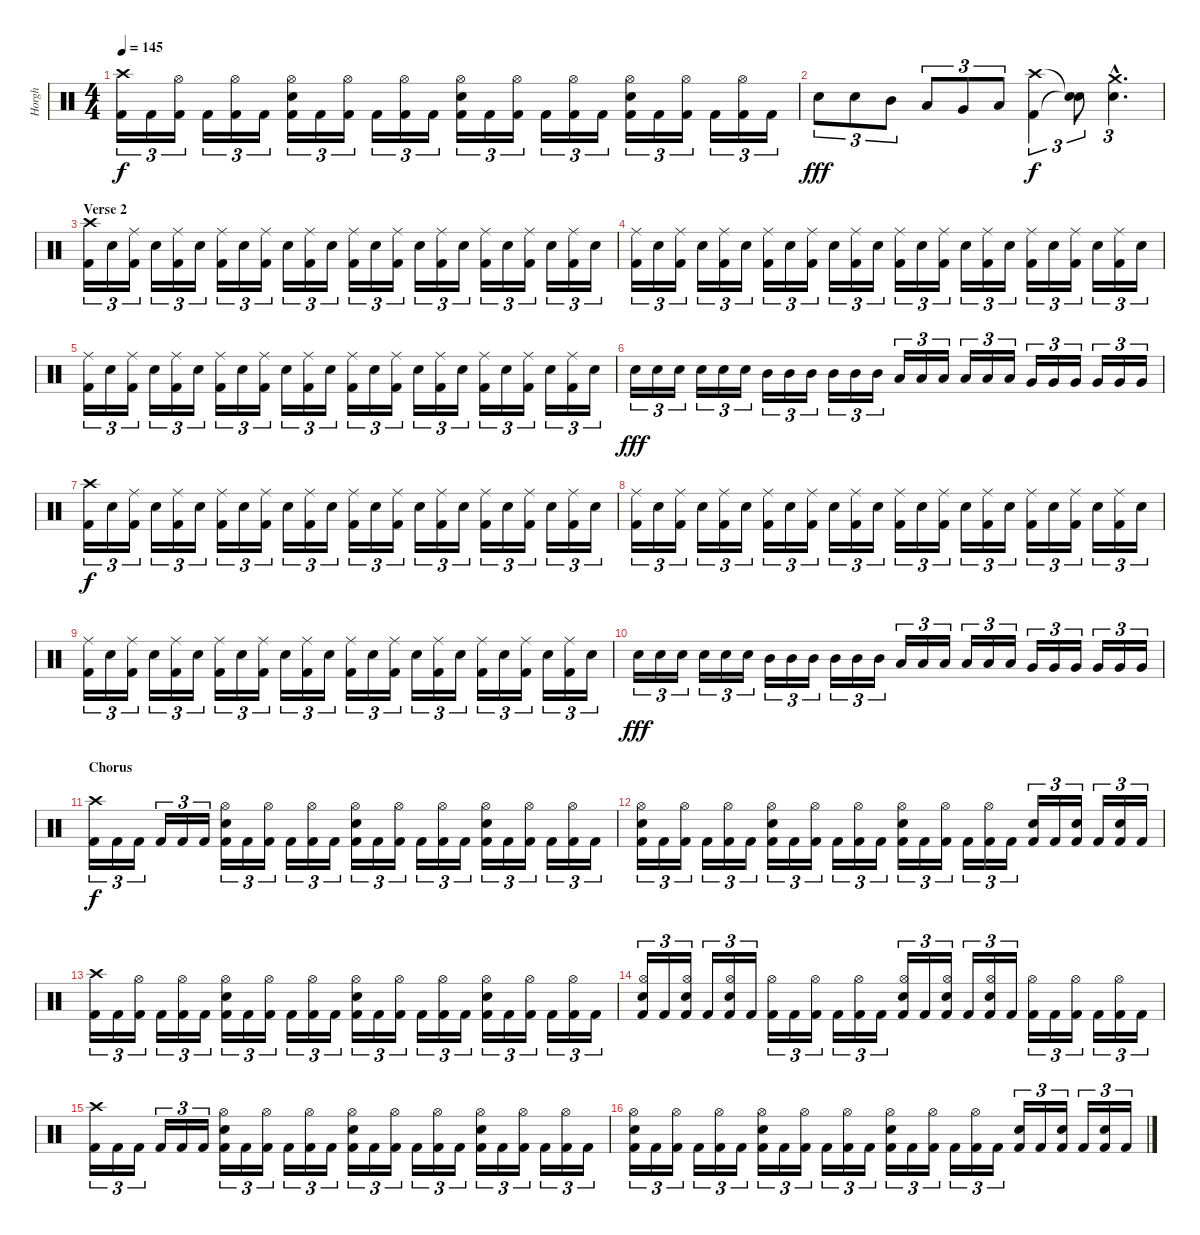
\track ("Horgh" "Horgh") {instrument percussion}
\staff {score}
\articulation defaults
\ts (4 4)
\tempo 145
\clef neutral
\ks c
("Crash high (hit)" "Kick (hit) 2").16{tu (3 2) dy f} "Kick (hit) 2".16{tu (3 2)} ("Hi-Hat (open)" "Kick (hit) 2").16{tu (3 2)} "Kick (hit) 2".16{tu (3 2)} ("Hi-Hat (open)" "Kick (hit) 2").16{tu (3 2)} "Kick (hit) 2".16{tu (3 2)} ("Hi-Hat (open)" "Electric Snare (hit)" "Kick (hit) 2").16{tu (3 2)} "Kick (hit) 2".16{tu (3 2)} ("Hi-Hat (open)" "Kick (hit) 2").16{tu (3 2)} "Kick (hit) 2".16{tu (3 2)} ("Hi-Hat (open)" "Kick (hit) 2").16{tu (3 2)} "Kick (hit) 2".16{tu (3 2)} ("Hi-Hat (open)" "Electric Snare (hit)" "Kick (hit) 2").16{tu (3 2)} "Kick (hit) 2".16{tu (3 2)} ("Hi-Hat (open)" "Kick (hit) 2").16{tu (3 2)} "Kick (hit) 2".16{tu (3 2)} ("Hi-Hat (open)" "Kick (hit) 2").16{tu (3 2)} "Kick (hit) 2".16{tu (3 2)} ("Hi-Hat (open)" "Electric Snare (hit)" "Kick (hit) 2").16{tu (3 2)} "Kick (hit) 2".16{tu (3 2)} ("Hi-Hat (open)" "Kick (hit) 2").16{tu (3 2)} "Kick (hit) 2".16{tu (3 2)} ("Hi-Hat (open)" "Kick (hit) 2").16{tu (3 2)} "Kick (hit) 2".16{tu (3 2)} |
"Electric Snare (hit)".8{tu (3 2) dy fff} "Electric Snare (hit)".8{tu (3 2)} "Mid Tom (hit)".8{tu (3 2)} "Low Tom (hit)".8{tu (3 2)} "Very Low Tom (hit)".8{tu (3 2)} "Low Floor Tom (hit)".8{tu (3 2)} ("Crash high (hit)" "Kick (hit) 2").4{tu (3 2) dy f} ("Snare (hit)"{t} "Snare (hit)"{t}).8{tu (3 2)} ("Crash medium (hit)"{hac} "Electric Snare (hit)"{hac}).4{d tu (3 2)} |
\section ("" "Verse 2")
("Crash high (hit)" "Kick (hit) 2").16{tu (3 2)} "Electric Snare (hit)".16{tu (3 2)} ("Ride (middle)" "Kick (hit) 2").16{tu (3 2)} "Electric Snare (hit)".16{tu (3 2)} ("Ride (middle)" "Kick (hit) 2").16{tu (3 2)} "Electric Snare (hit)".16{tu (3 2)} ("Ride (middle)" "Kick (hit) 2").16{tu (3 2)} "Electric Snare (hit)".16{tu (3 2)} ("Ride (middle)" "Kick (hit) 2").16{tu (3 2)} "Electric Snare (hit)".16{tu (3 2)} ("Ride (middle)" "Kick (hit) 2").16{tu (3 2)} "Electric Snare (hit)".16{tu (3 2)} ("Ride (middle)" "Kick (hit) 2").16{tu (3 2)} "Electric Snare (hit)".16{tu (3 2)} ("Ride (middle)" "Kick (hit) 2").16{tu (3 2)} "Electric Snare (hit)".16{tu (3 2)} ("Ride (middle)" "Kick (hit) 2").16{tu (3 2)} "Electric Snare (hit)".16{tu (3 2)} ("Ride (middle)" "Kick (hit) 2").16{tu (3 2)} "Electric Snare (hit)".16{tu (3 2)} ("Ride (middle)" "Kick (hit) 2").16{tu (3 2)} "Electric Snare (hit)".16{tu (3 2)} ("Ride (middle)" "Kick (hit) 2").16{tu (3 2)} "Electric Snare (hit)".16{tu (3 2)} |
("Ride (middle)" "Kick (hit) 2").16{tu (3 2)} "Electric Snare (hit)".16{tu (3 2)} ("Ride (middle)" "Kick (hit) 2").16{tu (3 2)} "Electric Snare (hit)".16{tu (3 2)} ("Ride (middle)" "Kick (hit) 2").16{tu (3 2)} "Electric Snare (hit)".16{tu (3 2)} ("Ride (middle)" "Kick (hit) 2").16{tu (3 2)} "Electric Snare (hit)".16{tu (3 2)} ("Ride (middle)" "Kick (hit) 2").16{tu (3 2)} "Electric Snare (hit)".16{tu (3 2)} ("Ride (middle)" "Kick (hit) 2").16{tu (3 2)} "Electric Snare (hit)".16{tu (3 2)} ("Ride (middle)" "Kick (hit) 2").16{tu (3 2)} "Electric Snare (hit)".16{tu (3 2)} ("Ride (middle)" "Kick (hit) 2").16{tu (3 2)} "Electric Snare (hit)".16{tu (3 2)} ("Ride (middle)" "Kick (hit) 2").16{tu (3 2)} "Electric Snare (hit)".16{tu (3 2)} ("Ride (middle)" "Kick (hit) 2").16{tu (3 2)} "Electric Snare (hit)".16{tu (3 2)} ("Ride (middle)" "Kick (hit) 2").16{tu (3 2)} "Electric Snare (hit)".16{tu (3 2)} ("Ride (middle)" "Kick (hit) 2").16{tu (3 2)} "Electric Snare (hit)".16{tu (3 2)} |
("Ride (middle)" "Kick (hit) 2").16{tu (3 2)} "Electric Snare (hit)".16{tu (3 2)} ("Ride (middle)" "Kick (hit) 2").16{tu (3 2)} "Electric Snare (hit)".16{tu (3 2)} ("Ride (middle)" "Kick (hit) 2").16{tu (3 2)} "Electric Snare (hit)".16{tu (3 2)} ("Ride (middle)" "Kick (hit) 2").16{tu (3 2)} "Electric Snare (hit)".16{tu (3 2)} ("Ride (middle)" "Kick (hit) 2").16{tu (3 2)} "Electric Snare (hit)".16{tu (3 2)} ("Ride (middle)" "Kick (hit) 2").16{tu (3 2)} "Electric Snare (hit)".16{tu (3 2)} ("Ride (middle)" "Kick (hit) 2").16{tu (3 2)} "Electric Snare (hit)".16{tu (3 2)} ("Ride (middle)" "Kick (hit) 2").16{tu (3 2)} "Electric Snare (hit)".16{tu (3 2)} ("Ride (middle)" "Kick (hit) 2").16{tu (3 2)} "Electric Snare (hit)".16{tu (3 2)} ("Ride (middle)" "Kick (hit) 2").16{tu (3 2)} "Electric Snare (hit)".16{tu (3 2)} ("Ride (middle)" "Kick (hit) 2").16{tu (3 2)} "Electric Snare (hit)".16{tu (3 2)} ("Ride (middle)" "Kick (hit) 2").16{tu (3 2)} "Electric Snare (hit)".16{tu (3 2)} |
"Electric Snare (hit)".16{tu (3 2) dy fff} "Electric Snare (hit)".16{tu (3 2)} "Electric Snare (hit)".16{tu (3 2)} "Electric Snare (hit)".16{tu (3 2)} "Electric Snare (hit)".16{tu (3 2)} "Electric Snare (hit)".16{tu (3 2)} "Mid Tom (hit)".16{tu (3 2)} "Mid Tom (hit)".16{tu (3 2)} "Mid Tom (hit)".16{tu (3 2)} "Mid Tom (hit)".16{tu (3 2)} "Mid Tom (hit)".16{tu (3 2)} "Mid Tom (hit)".16{tu (3 2)} "Low Tom (hit)".16{tu (3 2)} "Low Tom (hit)".16{tu (3 2)} "Low Tom (hit)".16{tu (3 2)} "Low Tom (hit)".16{tu (3 2)} "Low Tom (hit)".16{tu (3 2)} "Low Tom (hit)".16{tu (3 2)} "Very Low Tom (hit)".16{tu (3 2)} "Very Low Tom (hit)".16{tu (3 2)} "Very Low Tom (hit)".16{tu (3 2)} "Very Low Tom (hit)".16{tu (3 2)} "Very Low Tom (hit)".16{tu (3 2)} "Very Low Tom (hit)".16{tu (3 2)} |
("Crash high (hit)" "Kick (hit) 2").16{tu (3 2) dy f} "Electric Snare (hit)".16{tu (3 2)} ("Ride (middle)" "Kick (hit) 2").16{tu (3 2)} "Electric Snare (hit)".16{tu (3 2)} ("Ride (middle)" "Kick (hit) 2").16{tu (3 2)} "Electric Snare (hit)".16{tu (3 2)} ("Ride (middle)" "Kick (hit) 2").16{tu (3 2)} "Electric Snare (hit)".16{tu (3 2)} ("Ride (middle)" "Kick (hit) 2").16{tu (3 2)} "Electric Snare (hit)".16{tu (3 2)} ("Ride (middle)" "Kick (hit) 2").16{tu (3 2)} "Electric Snare (hit)".16{tu (3 2)} ("Ride (middle)" "Kick (hit) 2").16{tu (3 2)} "Electric Snare (hit)".16{tu (3 2)} ("Ride (middle)" "Kick (hit) 2").16{tu (3 2)} "Electric Snare (hit)".16{tu (3 2)} ("Ride (middle)" "Kick (hit) 2").16{tu (3 2)} "Electric Snare (hit)".16{tu (3 2)} ("Ride (middle)" "Kick (hit) 2").16{tu (3 2)} "Electric Snare (hit)".16{tu (3 2)} ("Ride (middle)" "Kick (hit) 2").16{tu (3 2)} "Electric Snare (hit)".16{tu (3 2)} ("Ride (middle)" "Kick (hit) 2").16{tu (3 2)} "Electric Snare (hit)".16{tu (3 2)} |
("Ride (middle)" "Kick (hit) 2").16{tu (3 2)} "Electric Snare (hit)".16{tu (3 2)} ("Ride (middle)" "Kick (hit) 2").16{tu (3 2)} "Electric Snare (hit)".16{tu (3 2)} ("Ride (middle)" "Kick (hit) 2").16{tu (3 2)} "Electric Snare (hit)".16{tu (3 2)} ("Ride (middle)" "Kick (hit) 2").16{tu (3 2)} "Electric Snare (hit)".16{tu (3 2)} ("Ride (middle)" "Kick (hit) 2").16{tu (3 2)} "Electric Snare (hit)".16{tu (3 2)} ("Ride (middle)" "Kick (hit) 2").16{tu (3 2)} "Electric Snare (hit)".16{tu (3 2)} ("Ride (middle)" "Kick (hit) 2").16{tu (3 2)} "Electric Snare (hit)".16{tu (3 2)} ("Ride (middle)" "Kick (hit) 2").16{tu (3 2)} "Electric Snare (hit)".16{tu (3 2)} ("Ride (middle)" "Kick (hit) 2").16{tu (3 2)} "Electric Snare (hit)".16{tu (3 2)} ("Ride (middle)" "Kick (hit) 2").16{tu (3 2)} "Electric Snare (hit)".16{tu (3 2)} ("Ride (middle)" "Kick (hit) 2").16{tu (3 2)} "Electric Snare (hit)".16{tu (3 2)} ("Ride (middle)" "Kick (hit) 2").16{tu (3 2)} "Electric Snare (hit)".16{tu (3 2)} |
("Ride (middle)" "Kick (hit) 2").16{tu (3 2)} "Electric Snare (hit)".16{tu (3 2)} ("Ride (middle)" "Kick (hit) 2").16{tu (3 2)} "Electric Snare (hit)".16{tu (3 2)} ("Ride (middle)" "Kick (hit) 2").16{tu (3 2)} "Electric Snare (hit)".16{tu (3 2)} ("Ride (middle)" "Kick (hit) 2").16{tu (3 2)} "Electric Snare (hit)".16{tu (3 2)} ("Ride (middle)" "Kick (hit) 2").16{tu (3 2)} "Electric Snare (hit)".16{tu (3 2)} ("Ride (middle)" "Kick (hit) 2").16{tu (3 2)} "Electric Snare (hit)".16{tu (3 2)} ("Ride (middle)" "Kick (hit) 2").16{tu (3 2)} "Electric Snare (hit)".16{tu (3 2)} ("Ride (middle)" "Kick (hit) 2").16{tu (3 2)} "Electric Snare (hit)".16{tu (3 2)} ("Ride (middle)" "Kick (hit) 2").16{tu (3 2)} "Electric Snare (hit)".16{tu (3 2)} ("Ride (middle)" "Kick (hit) 2").16{tu (3 2)} "Electric Snare (hit)".16{tu (3 2)} ("Ride (middle)" "Kick (hit) 2").16{tu (3 2)} "Electric Snare (hit)".16{tu (3 2)} ("Ride (middle)" "Kick (hit) 2").16{tu (3 2)} "Electric Snare (hit)".16{tu (3 2)} |
"Electric Snare (hit)".16{tu (3 2) dy fff} "Electric Snare (hit)".16{tu (3 2)} "Electric Snare (hit)".16{tu (3 2)} "Electric Snare (hit)".16{tu (3 2)} "Electric Snare (hit)".16{tu (3 2)} "Electric Snare (hit)".16{tu (3 2)} "Mid Tom (hit)".16{tu (3 2)} "Mid Tom (hit)".16{tu (3 2)} "Mid Tom (hit)".16{tu (3 2)} "Mid Tom (hit)".16{tu (3 2)} "Mid Tom (hit)".16{tu (3 2)} "Mid Tom (hit)".16{tu (3 2)} "Low Tom (hit)".16{tu (3 2)} "Low Tom (hit)".16{tu (3 2)} "Low Tom (hit)".16{tu (3 2)} "Low Tom (hit)".16{tu (3 2)} "Low Tom (hit)".16{tu (3 2)} "Low Tom (hit)".16{tu (3 2)} "Very Low Tom (hit)".16{tu (3 2)} "Very Low Tom (hit)".16{tu (3 2)} "Very Low Tom (hit)".16{tu (3 2)} "Very Low Tom (hit)".16{tu (3 2)} "Very Low Tom (hit)".16{tu (3 2)} "Very Low Tom (hit)".16{tu (3 2)} |
\section ("" "Chorus")
("Crash high (hit)" "Kick (hit) 2").16{tu (3 2) dy f} "Kick (hit) 2".16{tu (3 2)} "Kick (hit) 2".16{tu (3 2)} "Kick (hit) 2".16{tu (3 2)} "Kick (hit) 2".16{tu (3 2)} "Kick (hit) 2".16{tu (3 2)} ("Hi-Hat (open)" "Electric Snare (hit)" "Kick (hit) 2").16{tu (3 2)} "Kick (hit) 2".16{tu (3 2)} ("Hi-Hat (open)" "Kick (hit) 2").16{tu (3 2)} "Kick (hit) 2".16{tu (3 2)} ("Hi-Hat (open)" "Kick (hit) 2").16{tu (3 2)} "Kick (hit) 2".16{tu (3 2)} ("Hi-Hat (open)" "Electric Snare (hit)" "Kick (hit) 2").16{tu (3 2)} "Kick (hit) 2".16{tu (3 2)} ("Hi-Hat (open)" "Kick (hit) 2").16{tu (3 2)} "Kick (hit) 2".16{tu (3 2)} ("Hi-Hat (open)" "Kick (hit) 2").16{tu (3 2)} "Kick (hit) 2".16{tu (3 2)} ("Hi-Hat (open)" "Electric Snare (hit)" "Kick (hit) 2").16{tu (3 2)} "Kick (hit) 2".16{tu (3 2)} ("Hi-Hat (open)" "Kick (hit) 2").16{tu (3 2)} "Kick (hit) 2".16{tu (3 2)} ("Hi-Hat (open)" "Kick (hit) 2").16{tu (3 2)} "Kick (hit) 2".16{tu (3 2)} |
("Hi-Hat (open)" "Electric Snare (hit)" "Kick (hit) 2").16{tu (3 2)} "Kick (hit) 2".16{tu (3 2)} ("Hi-Hat (open)" "Kick (hit) 2").16{tu (3 2)} "Kick (hit) 2".16{tu (3 2)} ("Hi-Hat (open)" "Kick (hit) 2").16{tu (3 2)} "Kick (hit) 2".16{tu (3 2)} ("Hi-Hat (open)" "Electric Snare (hit)" "Kick (hit) 2").16{tu (3 2)} "Kick (hit) 2".16{tu (3 2)} ("Hi-Hat (open)" "Kick (hit) 2").16{tu (3 2)} "Kick (hit) 2".16{tu (3 2)} ("Hi-Hat (open)" "Kick (hit) 2").16{tu (3 2)} "Kick (hit) 2".16{tu (3 2)} ("Hi-Hat (open)" "Electric Snare (hit)" "Kick (hit) 2").16{tu (3 2)} "Kick (hit) 2".16{tu (3 2)} ("Hi-Hat (open)" "Kick (hit) 2").16{tu (3 2)} "Kick (hit) 2".16{tu (3 2)} ("Hi-Hat (open)" "Kick (hit) 2").16{tu (3 2)} "Kick (hit) 2".16{tu (3 2)} ("Electric Snare (hit)" "Kick (hit) 2").16{tu (3 2)} "Kick (hit) 2".16{tu (3 2)} ("Electric Snare (hit)" "Kick (hit) 2").16{tu (3 2)} "Kick (hit) 2".16{tu (3 2)} ("Electric Snare (hit)" "Kick (hit) 2").16{tu (3 2)} "Kick (hit) 2".16{tu (3 2)} |
("Crash high (hit)" "Kick (hit) 2").16{tu (3 2)} "Kick (hit) 2".16{tu (3 2)} ("Hi-Hat (open)" "Kick (hit) 2").16{tu (3 2)} "Kick (hit) 2".16{tu (3 2)} ("Hi-Hat (open)" "Kick (hit) 2").16{tu (3 2)} "Kick (hit) 2".16{tu (3 2)} ("Hi-Hat (open)" "Electric Snare (hit)" "Kick (hit) 2").16{tu (3 2)} "Kick (hit) 2".16{tu (3 2)} ("Hi-Hat (open)" "Kick (hit) 2").16{tu (3 2)} "Kick (hit) 2".16{tu (3 2)} ("Hi-Hat (open)" "Kick (hit) 2").16{tu (3 2)} "Kick (hit) 2".16{tu (3 2)} ("Hi-Hat (open)" "Electric Snare (hit)" "Kick (hit) 2").16{tu (3 2)} "Kick (hit) 2".16{tu (3 2)} ("Hi-Hat (open)" "Kick (hit) 2").16{tu (3 2)} "Kick (hit) 2".16{tu (3 2)} ("Hi-Hat (open)" "Kick (hit) 2").16{tu (3 2)} "Kick (hit) 2".16{tu (3 2)} ("Hi-Hat (open)" "Electric Snare (hit)" "Kick (hit) 2").16{tu (3 2)} "Kick (hit) 2".16{tu (3 2)} ("Hi-Hat (open)" "Kick (hit) 2").16{tu (3 2)} "Kick (hit) 2".16{tu (3 2)} ("Hi-Hat (open)" "Kick (hit) 2").16{tu (3 2)} "Kick (hit) 2".16{tu (3 2)} |
("Hi-Hat (open)" "Electric Snare (hit)" "Kick (hit) 2").16{tu (3 2)} "Kick (hit) 2".16{tu (3 2)} ("Hi-Hat (open)" "Electric Snare (hit)" "Kick (hit) 2").16{tu (3 2)} "Kick (hit) 2".16{tu (3 2)} ("Hi-Hat (open)" "Electric Snare (hit)" "Kick (hit) 2").16{tu (3 2)} "Kick (hit) 2".16{tu (3 2)} ("Hi-Hat (open)" "Kick (hit) 2").16{tu (3 2)} "Kick (hit) 2".16{tu (3 2)} ("Hi-Hat (open)" "Kick (hit) 2").16{tu (3 2)} "Kick (hit) 2".16{tu (3 2)} ("Hi-Hat (open)" "Kick (hit) 2").16{tu (3 2)} "Kick (hit) 2".16{tu (3 2)} ("Hi-Hat (open)" "Electric Snare (hit)" "Kick (hit) 2").16{tu (3 2)} "Kick (hit) 2".16{tu (3 2)} ("Hi-Hat (open)" "Electric Snare (hit)" "Kick (hit) 2").16{tu (3 2)} "Kick (hit) 2".16{tu (3 2)} ("Hi-Hat (open)" "Electric Snare (hit)" "Kick (hit) 2").16{tu (3 2)} "Kick (hit) 2".16{tu (3 2)} ("Hi-Hat (open)" "Kick (hit) 2").16{tu (3 2)} "Kick (hit) 2".16{tu (3 2)} ("Hi-Hat (open)" "Kick (hit) 2").16{tu (3 2)} "Kick (hit) 2".16{tu (3 2)} ("Hi-Hat (open)" "Kick (hit) 2").16{tu (3 2)} "Kick (hit) 2".16{tu (3 2)} |
("Crash high (hit)" "Kick (hit) 2").16{tu (3 2)} "Kick (hit) 2".16{tu (3 2)} "Kick (hit) 2".16{tu (3 2)} "Kick (hit) 2".16{tu (3 2)} "Kick (hit) 2".16{tu (3 2)} "Kick (hit) 2".16{tu (3 2)} ("Hi-Hat (open)" "Electric Snare (hit)" "Kick (hit) 2").16{tu (3 2)} "Kick (hit) 2".16{tu (3 2)} ("Hi-Hat (open)" "Kick (hit) 2").16{tu (3 2)} "Kick (hit) 2".16{tu (3 2)} ("Hi-Hat (open)" "Kick (hit) 2").16{tu (3 2)} "Kick (hit) 2".16{tu (3 2)} ("Hi-Hat (open)" "Electric Snare (hit)" "Kick (hit) 2").16{tu (3 2)} "Kick (hit) 2".16{tu (3 2)} ("Hi-Hat (open)" "Kick (hit) 2").16{tu (3 2)} "Kick (hit) 2".16{tu (3 2)} ("Hi-Hat (open)" "Kick (hit) 2").16{tu (3 2)} "Kick (hit) 2".16{tu (3 2)} ("Hi-Hat (open)" "Electric Snare (hit)" "Kick (hit) 2").16{tu (3 2)} "Kick (hit) 2".16{tu (3 2)} ("Hi-Hat (open)" "Kick (hit) 2").16{tu (3 2)} "Kick (hit) 2".16{tu (3 2)} ("Hi-Hat (open)" "Kick (hit) 2").16{tu (3 2)} "Kick (hit) 2".16{tu (3 2)} |
("Hi-Hat (open)" "Electric Snare (hit)" "Kick (hit) 2").16{tu (3 2)} "Kick (hit) 2".16{tu (3 2)} ("Hi-Hat (open)" "Kick (hit) 2").16{tu (3 2)} "Kick (hit) 2".16{tu (3 2)} ("Hi-Hat (open)" "Kick (hit) 2").16{tu (3 2)} "Kick (hit) 2".16{tu (3 2)} ("Hi-Hat (open)" "Electric Snare (hit)" "Kick (hit) 2").16{tu (3 2)} "Kick (hit) 2".16{tu (3 2)} ("Hi-Hat (open)" "Kick (hit) 2").16{tu (3 2)} "Kick (hit) 2".16{tu (3 2)} ("Hi-Hat (open)" "Kick (hit) 2").16{tu (3 2)} "Kick (hit) 2".16{tu (3 2)} ("Hi-Hat (open)" "Electric Snare (hit)" "Kick (hit) 2").16{tu (3 2)} "Kick (hit) 2".16{tu (3 2)} ("Hi-Hat (open)" "Kick (hit) 2").16{tu (3 2)} "Kick (hit) 2".16{tu (3 2)} ("Hi-Hat (open)" "Kick (hit) 2").16{tu (3 2)} "Kick (hit) 2".16{tu (3 2)} ("Electric Snare (hit)" "Kick (hit) 2").16{tu (3 2)} "Kick (hit) 2".16{tu (3 2)} ("Electric Snare (hit)" "Kick (hit) 2").16{tu (3 2)} "Kick (hit) 2".16{tu (3 2)} ("Electric Snare (hit)" "Kick (hit) 2").16{tu (3 2)} "Kick (hit) 2".16{tu (3 2)}
